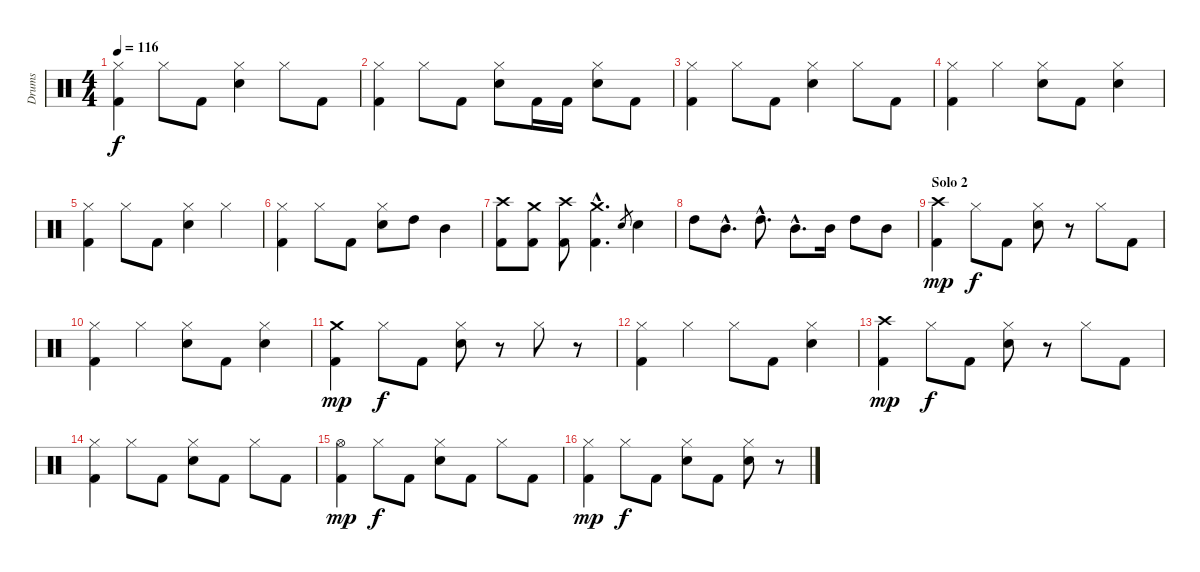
\track ("Drums" "Drums") {instrument percussion}
\staff {score}
\articulation defaults
\ts (4 4)
\tempo 116
\clef neutral
\ks c
("Hi-Hat (closed)" "Kick (hit) 2").4{dy f} "Hi-Hat (closed)".8 "Kick (hit) 2".8 ("Hi-Hat (closed)" "Snare (hit) 2").4 "Hi-Hat (closed)".8 "Kick (hit) 2".8 |
("Hi-Hat (closed)" "Kick (hit) 2").4 "Hi-Hat (closed)".8 "Kick (hit) 2".8 ("Hi-Hat (closed)" "Snare (hit) 2").8 "Kick (hit) 2".16 "Kick (hit) 2".16 ("Hi-Hat (closed)" "Snare (hit) 2").8 "Kick (hit) 2".8 |
("Hi-Hat (closed)" "Kick (hit) 2").4 "Hi-Hat (closed)".8 "Kick (hit) 2".8 ("Hi-Hat (closed)" "Snare (hit) 2").4 "Hi-Hat (closed)".8 "Kick (hit) 2".8 |
("Hi-Hat (closed)" "Kick (hit) 2").4 "Hi-Hat (closed)".4 ("Hi-Hat (closed)" "Snare (hit) 2").8 "Kick (hit) 2".8 ("Hi-Hat (closed)" "Snare (hit) 2").4 |
("Hi-Hat (closed)" "Kick (hit) 2").4 "Hi-Hat (closed)".8 "Kick (hit) 2".8 ("Hi-Hat (closed)" "Snare (hit) 2").4 "Hi-Hat (closed)".4 |
("Hi-Hat (closed)" "Kick (hit) 2").4 "Hi-Hat (closed)".8 "Kick (hit) 2".8 ("Hi-Hat (closed)" "Snare (hit) 2").8 "High Tom (hit)".8 "Mid Tom (hit)".4 |
("Crash high (hit)" "Kick (hit) 2").8 ("Crash medium (hit)" "Kick (hit) 2").8 ("Crash high (hit)" "Kick (hit) 2").8 ("Crash medium (hit)"{hac} "Kick (hit) 2"{hac}).4{d} "Snare (hit) 2".8{gr} "Snare (hit) 2".4 |
"High Tom (hit)".8 "Mid Tom (hit)"{hac}.8{d} "High Tom (hit)"{hac}.8{d} "Mid Tom (hit)"{hac}.8{d} "Mid Tom (hit)".16 "High Tom (hit)".8 "Mid Tom (hit)".8 |
\section ("" "Solo 2")
("Crash high (hit)" "Kick (hit) 2").4{dy mp} "Hi-Hat (closed)".8{dy f} "Kick (hit) 2".8 ("Hi-Hat (closed)" "Snare (hit) 2").8 r.8 "Hi-Hat (closed)".8 "Kick (hit) 2".8 |
("Hi-Hat (closed)" "Kick (hit) 2").4 "Hi-Hat (closed)".4 ("Hi-Hat (closed)" "Snare (hit) 2").8 "Kick (hit) 2".8 ("Hi-Hat (closed)" "Snare (hit) 2").4 |
("Crash medium (hit)" "Kick (hit) 2").4{dy mp} "Hi-Hat (closed)".8{dy f} "Kick (hit) 2".8 ("Hi-Hat (closed)" "Snare (hit) 2").8 r.8 "Hi-Hat (closed)".8 r.8 |
("Hi-Hat (closed)" "Kick (hit) 2").4 "Hi-Hat (closed)".4 "Hi-Hat (closed)".8 "Kick (hit) 2".8 ("Hi-Hat (closed)" "Snare (hit) 2").4 |
("Crash high (hit)" "Kick (hit) 2").4{dy mp} "Hi-Hat (closed)".8{dy f} "Kick (hit) 2".8 ("Hi-Hat (closed)" "Snare (hit) 2").8 r.8 "Hi-Hat (closed)".8 "Kick (hit) 2".8 |
("Hi-Hat (closed)" "Kick (hit) 2").4 "Hi-Hat (closed)".8 "Kick (hit) 2".8 ("Hi-Hat (closed)" "Snare (hit) 2").8 "Kick (hit) 2".8 "Hi-Hat (closed)".8 "Kick (hit) 2".8 |
("Hi-Hat (open)" "Kick (hit) 2").4{dy mp} "Hi-Hat (closed)".8{dy f} "Kick (hit) 2".8 ("Hi-Hat (closed)" "Snare (hit) 2").8 "Kick (hit) 2".8 "Hi-Hat (closed)".8 "Kick (hit) 2".8 |
("Hi-Hat (closed)" "Kick (hit) 2").4{dy mp} "Hi-Hat (closed)".8{dy f} "Kick (hit) 2".8 ("Hi-Hat (closed)" "Snare (hit) 2").8 "Kick (hit) 2".8 ("Hi-Hat (closed)" "Snare (hit) 2").8 r.8
